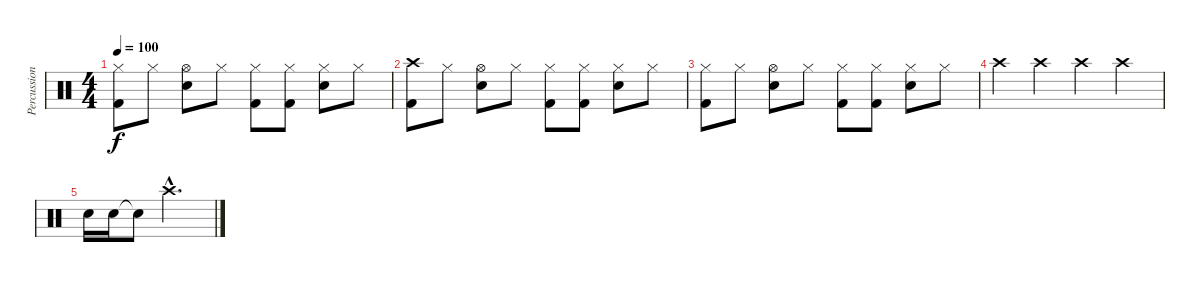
\track ("Percussions" "Percussion") {instrument percussion}
\staff {score}
\articulation defaults
\ts (4 4)
\tempo 100
\clef neutral
\ks c
("Hi-Hat (closed)" "Kick (hit) 2").8{dy f} "Hi-Hat (closed)".8 ("Hi-Hat (open)" "Snare (hit) 2").8 "Hi-Hat (closed)".8 ("Hi-Hat (closed)" "Kick (hit) 2").8 ("Hi-Hat (closed)" "Kick (hit) 2").8 ("Hi-Hat (closed)" "Snare (hit) 2").8 "Hi-Hat (closed)".8 |
("Crash high (hit)" "Kick (hit) 2").8 "Hi-Hat (closed)".8 ("Hi-Hat (open)" "Snare (hit) 2").8 "Hi-Hat (closed)".8 ("Hi-Hat (closed)" "Kick (hit) 2").8 ("Hi-Hat (closed)" "Kick (hit) 2").8 ("Hi-Hat (closed)" "Snare (hit) 2").8 "Hi-Hat (closed)".8 |
("Hi-Hat (closed)" "Kick (hit) 2").8 "Hi-Hat (closed)".8 ("Hi-Hat (open)" "Snare (hit) 2").8 "Hi-Hat (closed)".8 ("Hi-Hat (closed)" "Kick (hit) 2").8 ("Hi-Hat (closed)" "Kick (hit) 2").8 ("Hi-Hat (closed)" "Snare (hit) 2").8 "Hi-Hat (closed)".8 |
"Crash high (hit)".4 "Crash high (hit)".4 "Crash high (hit)".4 "Crash high (hit)".4 |
"Snare (hit) 2".16 "Snare (hit) 2".16 "Snare (hit) 2"{t}.8 "Crash high (hit)"{hac}.2{d}
